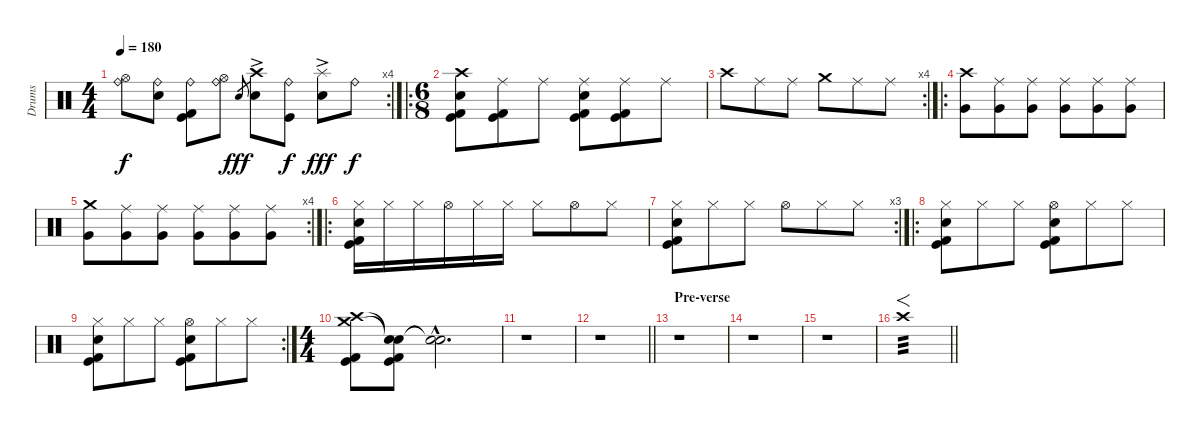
\track ("Drums" "Drums") {instrument percussion}
\staff {score}
\articulation defaults
\rc 4
\ts (4 4)
\tempo 180
\clef neutral
\ks c
("Hi-Hat (open)" "Ride (bell)").8{dy f} ("Electric Snare (hit)" "Ride (bell)").8 ("Kick (hit) 2" "Ride (bell)" "Kick (hit)").8 ("Hi-Hat (open)" "Ride (bell)").8 "Electric Snare (hit)".8{gr dy fff} ("Crash high (hit)" "Electric Snare (hit)"{ac}).8 ("Ride (bell)" "Kick (hit)").8{dy f} ("Splash (hit)" "Electric Snare (hit)"{ac}).8{dy fff} "Ride (bell)".8{dy f} |
\ro
\ts (6 8)
("Crash high (hit)" "Kick (hit)" "Electric Snare (hit)" "Kick (hit) 2").8 ("Ride (middle)" "Kick (hit)" "Kick (hit) 2").8 "Ride (middle)".8 ("Ride (middle)" "Kick (hit)" "Electric Snare (hit)" "Kick (hit) 2").8 ("Ride (middle)" "Kick (hit)" "Kick (hit) 2").8 "Ride (middle)".8 |
\rc 4 "Crash high (hit)".8 "Ride (middle)".8 "Ride (middle)".8 "Crash medium (hit)".8 "Ride (middle)".8 "Ride (middle)".8
|
\ro
("Crash high (hit)" "Very Low Tom (hit)").8 ("Ride (middle)" "Very Low Tom (hit)").8 ("Ride (middle)" "Very Low Tom (hit)").8 ("Ride (middle)" "Very Low Tom (hit)").8 ("Ride (middle)" "Very Low Tom (hit)").8 ("Ride (middle)" "Very Low Tom (hit)").8 |
\rc 4
("Crash medium (hit)" "Very Low Tom (hit)").8 ("Ride (middle)" "Very Low Tom (hit)").8 ("Ride (middle)" "Very Low Tom (hit)").8 ("Ride (middle)" "Very Low Tom (hit)").8 ("Ride (middle)" "Very Low Tom (hit)").8 ("Ride (middle)" "Very Low Tom (hit)").8 |
\ro
("Hi-Hat (closed)" "Electric Snare (hit)" "Kick (hit) 2" "Kick (hit)").16 "Hi-Hat (closed)".16 "Hi-Hat (closed)".16 "Hi-Hat (open)".16 "Hi-Hat (closed)".16 "Hi-Hat (closed)".16 "Hi-Hat (closed)".8 "Hi-Hat (open)".8 "Hi-Hat (closed)".8 |
\rc 3
("Hi-Hat (closed)" "Electric Snare (hit)" "Kick (hit) 2" "Kick (hit)").8 "Hi-Hat (closed)".8 "Hi-Hat (closed)".8 "Hi-Hat (open)".8 "Hi-Hat (closed)".8 "Hi-Hat (closed)".8 |
\ro
("Hi-Hat (closed)" "Electric Snare (hit)" "Kick (hit) 2" "Kick (hit)").8 "Hi-Hat (closed)".8 "Hi-Hat (closed)".8 ("Hi-Hat (open)" "Electric Snare (hit)" "Kick (hit) 2" "Kick (hit)").8 "Hi-Hat (closed)".8 "Hi-Hat (closed)".8 |
\rc 2
("Hi-Hat (closed)" "Electric Snare (hit)" "Kick (hit) 2" "Kick (hit)").8 "Hi-Hat (closed)".8 "Hi-Hat (closed)".8 ("Hi-Hat (open)" "Electric Snare (hit)" "Kick (hit) 2" "Kick (hit)").8 "Hi-Hat (closed)".8 "Hi-Hat (closed)".8 |
\ts (4 4)
("Crash high (hit)" "Crash medium (hit)" "Kick (hit) 2" "Kick (hit)").8 ("Snare (hit)"{t} "Snare (hit)"{t} "Kick (hit) 2" "Kick (hit)").8 ("Snare (hit)"{hac t} "Snare (hit)"{hac t}).2{d} |
r.1 |
\barLineRight lightlight
r.1 |
\section ("" "Pre-verse")
r.1 |
r.1 |
r.1 |
\barLineRight lightlight "Crash high (hit)".1{f tp 3}
